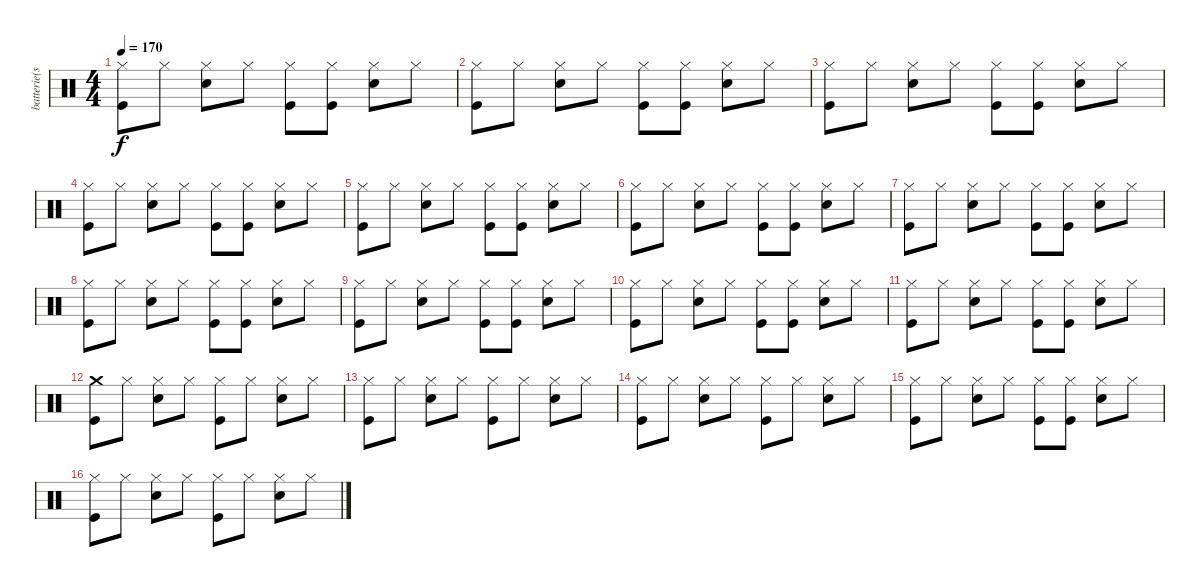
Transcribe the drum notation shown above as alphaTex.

\track ("batterie(steve)" "batterie(s") {instrument percussion}
\staff {score}
\articulation defaults
\ts (4 4)
\tempo 170
\clef neutral
\ks c
("Hi-Hat (closed)" "Kick (hit)").8{dy f} "Hi-Hat (closed)".8 ("Hi-Hat (closed)" "Snare (hit) 2").8 "Hi-Hat (closed)".8 ("Hi-Hat (closed)" "Kick (hit)").8 ("Hi-Hat (closed)" "Kick (hit)").8 ("Hi-Hat (closed)" "Snare (hit) 2").8 "Hi-Hat (closed)".8 |
("Hi-Hat (closed)" "Kick (hit)").8 "Hi-Hat (closed)".8 ("Hi-Hat (closed)" "Snare (hit) 2").8 "Hi-Hat (closed)".8 ("Hi-Hat (closed)" "Kick (hit)").8 ("Hi-Hat (closed)" "Kick (hit)").8 ("Hi-Hat (closed)" "Snare (hit) 2").8 "Hi-Hat (closed)".8 |
("Hi-Hat (closed)" "Kick (hit)").8 "Hi-Hat (closed)".8 ("Hi-Hat (closed)" "Snare (hit) 2").8 "Hi-Hat (closed)".8 ("Hi-Hat (closed)" "Kick (hit)").8 ("Hi-Hat (closed)" "Kick (hit)").8 ("Hi-Hat (closed)" "Snare (hit) 2").8 "Hi-Hat (closed)".8 |
("Hi-Hat (closed)" "Kick (hit)").8 "Hi-Hat (closed)".8 ("Hi-Hat (closed)" "Snare (hit) 2").8 "Hi-Hat (closed)".8 ("Hi-Hat (closed)" "Kick (hit)").8 ("Hi-Hat (closed)" "Kick (hit)").8 ("Hi-Hat (closed)" "Snare (hit) 2").8 "Hi-Hat (closed)".8 |
("Hi-Hat (closed)" "Kick (hit)").8 "Hi-Hat (closed)".8 ("Hi-Hat (closed)" "Snare (hit) 2").8 "Hi-Hat (closed)".8 ("Hi-Hat (closed)" "Kick (hit)").8 ("Hi-Hat (closed)" "Kick (hit)").8 ("Hi-Hat (closed)" "Snare (hit) 2").8 "Hi-Hat (closed)".8 |
("Hi-Hat (closed)" "Kick (hit)").8 "Hi-Hat (closed)".8 ("Hi-Hat (closed)" "Snare (hit) 2").8 "Hi-Hat (closed)".8 ("Hi-Hat (closed)" "Kick (hit)").8 ("Hi-Hat (closed)" "Kick (hit)").8 ("Hi-Hat (closed)" "Snare (hit) 2").8 "Hi-Hat (closed)".8 |
("Hi-Hat (closed)" "Kick (hit)").8 "Hi-Hat (closed)".8 ("Hi-Hat (closed)" "Snare (hit) 2").8 "Hi-Hat (closed)".8 ("Hi-Hat (closed)" "Kick (hit)").8 ("Hi-Hat (closed)" "Kick (hit)").8 ("Hi-Hat (closed)" "Snare (hit) 2").8 "Hi-Hat (closed)".8 |
("Hi-Hat (closed)" "Kick (hit)").8 "Hi-Hat (closed)".8 ("Hi-Hat (closed)" "Snare (hit) 2").8 "Hi-Hat (closed)".8 ("Hi-Hat (closed)" "Kick (hit)").8 ("Hi-Hat (closed)" "Kick (hit)").8 ("Hi-Hat (closed)" "Snare (hit) 2").8 "Hi-Hat (closed)".8 |
("Hi-Hat (closed)" "Kick (hit)").8 "Hi-Hat (closed)".8 ("Hi-Hat (closed)" "Snare (hit) 2").8 "Hi-Hat (closed)".8 ("Hi-Hat (closed)" "Kick (hit)").8 ("Hi-Hat (closed)" "Kick (hit)").8 ("Hi-Hat (closed)" "Snare (hit) 2").8 "Hi-Hat (closed)".8 |
("Hi-Hat (closed)" "Kick (hit)").8 "Hi-Hat (closed)".8 ("Hi-Hat (closed)" "Snare (hit) 2").8 "Hi-Hat (closed)".8 ("Hi-Hat (closed)" "Kick (hit)").8 ("Hi-Hat (closed)" "Kick (hit)").8 ("Hi-Hat (closed)" "Snare (hit) 2").8 "Hi-Hat (closed)".8 |
("Hi-Hat (closed)" "Kick (hit)").8 "Hi-Hat (closed)".8 ("Hi-Hat (closed)" "Snare (hit) 2").8 "Hi-Hat (closed)".8 ("Hi-Hat (closed)" "Kick (hit)").8 ("Hi-Hat (closed)" "Kick (hit)").8 ("Hi-Hat (closed)" "Snare (hit) 2").8 "Hi-Hat (closed)".8 |
("Crash medium (hit)" "Kick (hit)").8 "Hi-Hat (closed)".8 ("Hi-Hat (closed)" "Snare (hit) 2").8 "Hi-Hat (closed)".8 ("Hi-Hat (closed)" "Kick (hit)").8 "Hi-Hat (closed)".8 ("Hi-Hat (closed)" "Snare (hit) 2").8 "Hi-Hat (closed)".8 |
("Hi-Hat (closed)" "Kick (hit)").8 "Hi-Hat (closed)".8 ("Hi-Hat (closed)" "Snare (hit) 2").8 "Hi-Hat (closed)".8 ("Hi-Hat (closed)" "Kick (hit)").8 "Hi-Hat (closed)".8 ("Hi-Hat (closed)" "Snare (hit) 2").8 "Hi-Hat (closed)".8 |
("Hi-Hat (closed)" "Kick (hit)").8 "Hi-Hat (closed)".8 ("Hi-Hat (closed)" "Snare (hit) 2").8 "Hi-Hat (closed)".8 ("Hi-Hat (closed)" "Kick (hit)").8 "Hi-Hat (closed)".8 ("Hi-Hat (closed)" "Snare (hit) 2").8 "Hi-Hat (closed)".8 |
("Hi-Hat (closed)" "Kick (hit)").8 "Hi-Hat (closed)".8 ("Hi-Hat (closed)" "Snare (hit) 2").8 "Hi-Hat (closed)".8 ("Hi-Hat (closed)" "Kick (hit)").8 ("Hi-Hat (closed)" "Kick (hit)").8 ("Hi-Hat (closed)" "Snare (hit) 2").8 "Hi-Hat (closed)".8 |
("Hi-Hat (closed)" "Kick (hit)").8 "Hi-Hat (closed)".8 ("Hi-Hat (closed)" "Snare (hit) 2").8 "Hi-Hat (closed)".8 ("Hi-Hat (closed)" "Kick (hit)").8 "Hi-Hat (closed)".8 ("Hi-Hat (closed)" "Snare (hit) 2").8 "Hi-Hat (closed)".8
